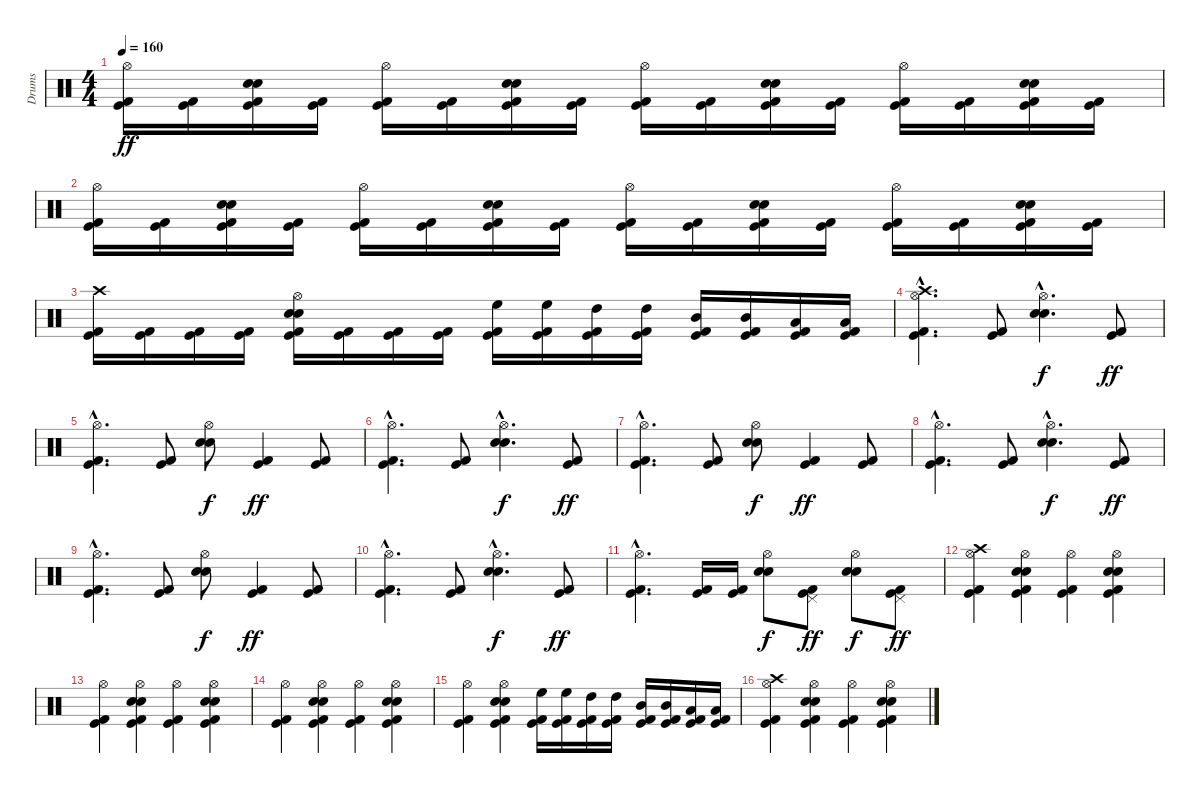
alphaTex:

\track ("Drums" "Drums") {instrument percussion}
\staff {score}
\articulation defaults
\ts (4 4)
\tempo 160
\clef neutral
\ks c
("Hi-Hat (open)" "Kick (hit) 2" "Kick (hit)").16{dy ff} ("Kick (hit) 2" "Kick (hit)").16 ("Electric Snare (hit)" "Snare (hit) 2" "Kick (hit) 2" "Kick (hit)").16 ("Kick (hit) 2" "Kick (hit)").16 ("Hi-Hat (open)" "Kick (hit) 2" "Kick (hit)").16 ("Kick (hit) 2" "Kick (hit)").16 ("Electric Snare (hit)" "Snare (hit) 2" "Kick (hit) 2" "Kick (hit)").16 ("Kick (hit) 2" "Kick (hit)").16 ("Hi-Hat (open)" "Kick (hit) 2" "Kick (hit)").16 ("Kick (hit) 2" "Kick (hit)").16 ("Electric Snare (hit)" "Snare (hit) 2" "Kick (hit) 2" "Kick (hit)").16 ("Kick (hit) 2" "Kick (hit)").16 ("Hi-Hat (open)" "Kick (hit) 2" "Kick (hit)").16 ("Kick (hit) 2" "Kick (hit)").16 ("Electric Snare (hit)" "Snare (hit) 2" "Kick (hit) 2" "Kick (hit)").16 ("Kick (hit) 2" "Kick (hit)").16 |
("Hi-Hat (open)" "Kick (hit) 2" "Kick (hit)").16 ("Kick (hit) 2" "Kick (hit)").16 ("Electric Snare (hit)" "Snare (hit) 2" "Kick (hit) 2" "Kick (hit)").16 ("Kick (hit) 2" "Kick (hit)").16 ("Hi-Hat (open)" "Kick (hit) 2" "Kick (hit)").16 ("Kick (hit) 2" "Kick (hit)").16 ("Electric Snare (hit)" "Snare (hit) 2" "Kick (hit) 2" "Kick (hit)").16 ("Kick (hit) 2" "Kick (hit)").16 ("Hi-Hat (open)" "Kick (hit) 2" "Kick (hit)").16 ("Kick (hit) 2" "Kick (hit)").16 ("Electric Snare (hit)" "Snare (hit) 2" "Kick (hit) 2" "Kick (hit)").16 ("Kick (hit) 2" "Kick (hit)").16 ("Hi-Hat (open)" "Kick (hit) 2" "Kick (hit)").16 ("Kick (hit) 2" "Kick (hit)").16 ("Electric Snare (hit)" "Snare (hit) 2" "Kick (hit) 2" "Kick (hit)").16 ("Kick (hit) 2" "Kick (hit)").16 |
("Crash high (hit)" "Kick (hit) 2" "Kick (hit)").16 ("Kick (hit) 2" "Kick (hit)").16 ("Kick (hit) 2" "Kick (hit)").16 ("Kick (hit) 2" "Kick (hit)").16 ("Hi-Hat (open)" "Snare (hit) 2" "Electric Snare (hit)" "Kick (hit) 2" "Kick (hit)").16 ("Kick (hit) 2" "Kick (hit)").16 ("Kick (hit) 2" "Kick (hit)").16 ("Kick (hit) 2" "Kick (hit)").16 ("High Floor Tom (hit)" "Kick (hit) 2" "Kick (hit)").16 ("High Floor Tom (hit)" "Kick (hit) 2" "Kick (hit)").16 ("High Tom (hit)" "Kick (hit) 2" "Kick (hit)").16 ("High Tom (hit)" "Kick (hit) 2" "Kick (hit)").16 ("Mid Tom (hit)" "Kick (hit) 2" "Kick (hit)").16 ("Mid Tom (hit)" "Kick (hit) 2" "Kick (hit)").16 ("Low Tom (hit)" "Kick (hit) 2" "Kick (hit)").16 ("Low Tom (hit)" "Kick (hit) 2" "Kick (hit)").16 |
("Hi-Hat (open)"{hac} "Crash high (hit)"{hac} "Kick (hit) 2"{hac} "Kick (hit)"{hac}).4{d} ("Kick (hit)" "Kick (hit) 2").8 ("Hi-Hat (open)"{hac} "Snare (hit) 2"{hac} "Electric Snare (hit)"{hac}).4{d dy f} ("Kick (hit)" "Kick (hit) 2").8{dy ff} |
("Hi-Hat (open)"{hac} "Kick (hit) 2"{hac} "Kick (hit)"{hac}).4{d} ("Kick (hit)" "Kick (hit) 2").8 ("Hi-Hat (open)" "Snare (hit) 2" "Electric Snare (hit)").8{dy f} ("Kick (hit)" "Kick (hit) 2").4{dy ff} ("Kick (hit)" "Kick (hit) 2").8 |
("Hi-Hat (open)"{hac} "Kick (hit) 2"{hac} "Kick (hit)"{hac}).4{d} ("Kick (hit)" "Kick (hit) 2").8 ("Hi-Hat (open)"{hac} "Snare (hit) 2"{hac} "Electric Snare (hit)"{hac}).4{d dy f} ("Kick (hit)" "Kick (hit) 2").8{dy ff} |
("Hi-Hat (open)"{hac} "Kick (hit) 2"{hac} "Kick (hit)"{hac}).4{d} ("Kick (hit)" "Kick (hit) 2").8 ("Hi-Hat (open)" "Snare (hit) 2" "Electric Snare (hit)").8{dy f} ("Kick (hit)" "Kick (hit) 2").4{dy ff} ("Kick (hit)" "Kick (hit) 2").8 |
("Hi-Hat (open)"{hac} "Kick (hit) 2"{hac} "Kick (hit)"{hac}).4{d} ("Kick (hit)" "Kick (hit) 2").8 ("Hi-Hat (open)"{hac} "Snare (hit) 2"{hac} "Electric Snare (hit)"{hac}).4{d dy f} ("Kick (hit)" "Kick (hit) 2").8{dy ff} |
("Hi-Hat (open)"{hac} "Kick (hit) 2"{hac} "Kick (hit)"{hac}).4{d} ("Kick (hit)" "Kick (hit) 2").8 ("Hi-Hat (open)" "Snare (hit) 2" "Electric Snare (hit)").8{dy f} ("Kick (hit)" "Kick (hit) 2").4{dy ff} ("Kick (hit)" "Kick (hit) 2").8 |
("Hi-Hat (open)"{hac} "Kick (hit) 2"{hac} "Kick (hit)"{hac}).4{d} ("Kick (hit)" "Kick (hit) 2").8 ("Hi-Hat (open)"{hac} "Snare (hit) 2"{hac} "Electric Snare (hit)"{hac}).4{d dy f} ("Kick (hit)" "Kick (hit) 2").8{dy ff} |
("Hi-Hat (open)"{hac} "Kick (hit) 2"{hac} "Kick (hit)"{hac}).4{d} ("Kick (hit) 2" "Kick (hit)").16 ("Kick (hit)" "Kick (hit) 2").16 ("Hi-Hat (open)" "Snare (hit) 2" "Electric Snare (hit)").8{dy f} ("Pedal Hi-Hat (hit)" "Kick (hit)" "Kick (hit) 2").8{dy ff} ("Hi-Hat (open)" "Snare (hit) 2" "Electric Snare (hit)").8{dy f} ("Pedal Hi-Hat (hit)" "Kick (hit)" "Kick (hit) 2").8{dy ff} |
("Hi-Hat (open)" "Crash high (hit)" "Kick (hit) 2" "Kick (hit)").4 ("Hi-Hat (open)" "Snare (hit) 2" "Electric Snare (hit)" "Kick (hit) 2" "Kick (hit)").4 ("Hi-Hat (open)" "Kick (hit) 2" "Kick (hit)").4 ("Hi-Hat (open)" "Snare (hit) 2" "Electric Snare (hit)" "Kick (hit) 2" "Kick (hit)").4 |
("Hi-Hat (open)" "Kick (hit) 2" "Kick (hit)").4 ("Hi-Hat (open)" "Snare (hit) 2" "Electric Snare (hit)" "Kick (hit) 2" "Kick (hit)").4 ("Hi-Hat (open)" "Kick (hit) 2" "Kick (hit)").4 ("Hi-Hat (open)" "Snare (hit) 2" "Electric Snare (hit)" "Kick (hit) 2" "Kick (hit)").4 |
("Hi-Hat (open)" "Kick (hit) 2" "Kick (hit)").4 ("Hi-Hat (open)" "Snare (hit) 2" "Electric Snare (hit)" "Kick (hit) 2" "Kick (hit)").4 ("Hi-Hat (open)" "Kick (hit) 2" "Kick (hit)").4 ("Hi-Hat (open)" "Snare (hit) 2" "Electric Snare (hit)" "Kick (hit) 2" "Kick (hit)").4 |
("Hi-Hat (open)" "Kick (hit) 2" "Kick (hit)").4 ("Hi-Hat (open)" "Snare (hit) 2" "Electric Snare (hit)" "Kick (hit) 2" "Kick (hit)").4 ("High Floor Tom (hit)" "Kick (hit) 2" "Kick (hit)").16 ("High Floor Tom (hit)" "Kick (hit) 2" "Kick (hit)").16 ("High Tom (hit)" "Kick (hit) 2" "Kick (hit)").16 ("High Tom (hit)" "Kick (hit) 2" "Kick (hit)").16 ("Mid Tom (hit)" "Kick (hit) 2" "Kick (hit)").16 ("Mid Tom (hit)" "Kick (hit) 2" "Kick (hit)").16 ("Low Tom (hit)" "Kick (hit) 2" "Kick (hit)").16 ("Low Tom (hit)" "Kick (hit) 2" "Kick (hit)").16 |
("Hi-Hat (open)" "Crash high (hit)" "Kick (hit) 2" "Kick (hit)").4 ("Hi-Hat (open)" "Snare (hit) 2" "Electric Snare (hit)" "Kick (hit) 2" "Kick (hit)").4 ("Hi-Hat (open)" "Kick (hit) 2" "Kick (hit)").4 ("Hi-Hat (open)" "Snare (hit) 2" "Electric Snare (hit)" "Kick (hit) 2" "Kick (hit)").4
